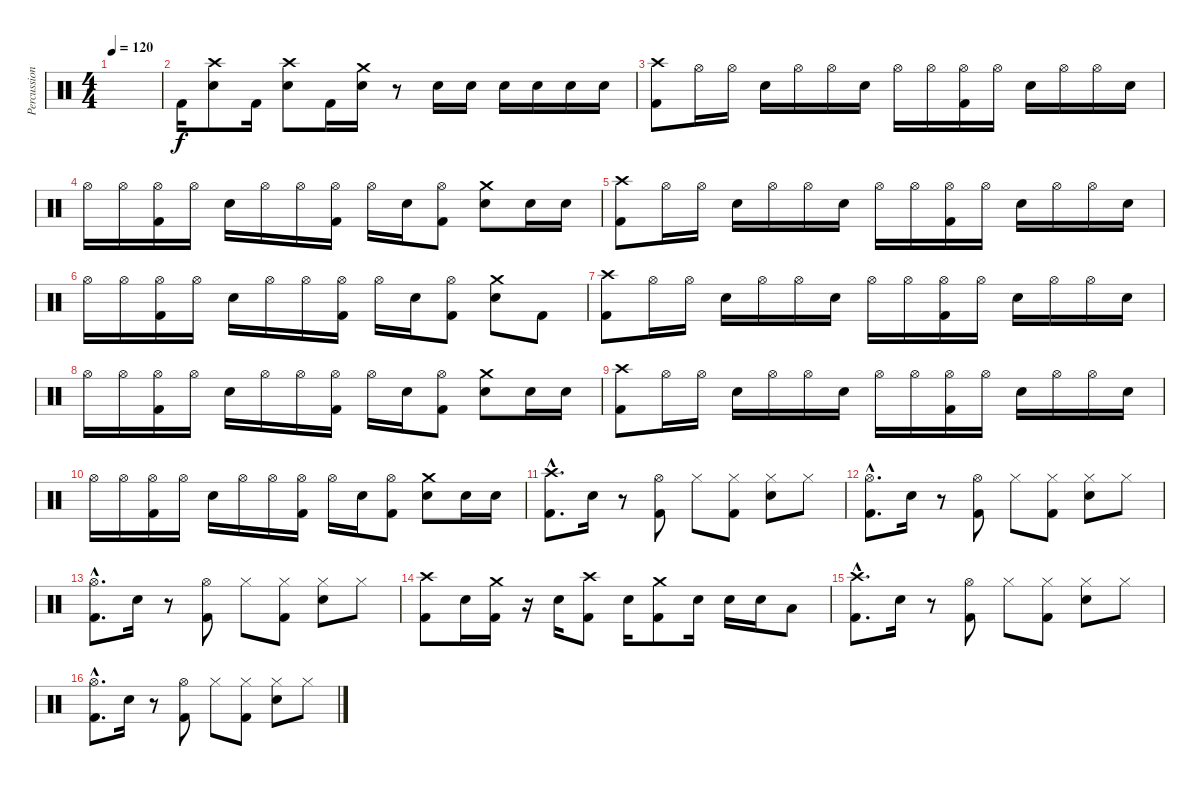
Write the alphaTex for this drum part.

\track ("Percussion" "Percussion") {instrument percussion}
\staff {score}
\articulation defaults
\ts (4 4)
\tempo 120
\clef neutral
\ks c
|
"Kick (hit) 2".16 ("Crash high (hit)" "Snare (hit) 2").8 "Kick (hit) 2".16 ("Crash high (hit)" "Snare (hit) 2").8 "Kick (hit) 2".16 ("Crash medium (hit)" "Snare (hit) 2").16 r.8 "Snare (hit) 2".16 "Snare (hit) 2".16 "Snare (hit) 2".16 "Snare (hit) 2".16 "Snare (hit) 2".16 "Snare (hit) 2".16 |
("Crash high (hit)" "Kick (hit) 2").8 "Hi-Hat (open)".16 "Hi-Hat (open)".16 "Snare (hit) 2".16 "Hi-Hat (open)".16 "Hi-Hat (open)".16 "Snare (hit) 2".16 "Hi-Hat (open)".16 "Hi-Hat (open)".16 ("Hi-Hat (open)" "Kick (hit) 2").16 "Hi-Hat (open)".16 "Snare (hit) 2".16 "Hi-Hat (open)".16 "Hi-Hat (open)".16 "Snare (hit) 2".16 |
"Hi-Hat (open)".16 "Hi-Hat (open)".16 ("Hi-Hat (open)" "Kick (hit) 2").16 "Hi-Hat (open)".16 "Snare (hit) 2".16 "Hi-Hat (open)".16 "Hi-Hat (open)".16 ("Hi-Hat (open)" "Kick (hit) 2").16 "Hi-Hat (open)".16 "Snare (hit) 2".16 ("Hi-Hat (open)" "Kick (hit) 2").8 ("Crash medium (hit)" "Snare (hit) 2").8 "Snare (hit) 2".16 "Snare (hit) 2".16 |
("Crash high (hit)" "Kick (hit) 2").8 "Hi-Hat (open)".16 "Hi-Hat (open)".16 "Snare (hit) 2".16 "Hi-Hat (open)".16 "Hi-Hat (open)".16 "Snare (hit) 2".16 "Hi-Hat (open)".16 "Hi-Hat (open)".16 ("Hi-Hat (open)" "Kick (hit) 2").16 "Hi-Hat (open)".16 "Snare (hit) 2".16 "Hi-Hat (open)".16 "Hi-Hat (open)".16 "Snare (hit) 2".16 |
"Hi-Hat (open)".16 "Hi-Hat (open)".16 ("Hi-Hat (open)" "Kick (hit) 2").16 "Hi-Hat (open)".16 "Snare (hit) 2".16 "Hi-Hat (open)".16 "Hi-Hat (open)".16 ("Hi-Hat (open)" "Kick (hit) 2").16 "Hi-Hat (open)".16 "Snare (hit) 2".16 ("Hi-Hat (open)" "Kick (hit) 2").8 ("Crash medium (hit)" "Snare (hit) 2").8 "Kick (hit) 2".8 |
("Crash high (hit)" "Kick (hit) 2").8 "Hi-Hat (open)".16 "Hi-Hat (open)".16 "Snare (hit) 2".16 "Hi-Hat (open)".16 "Hi-Hat (open)".16 "Snare (hit) 2".16 "Hi-Hat (open)".16 "Hi-Hat (open)".16 ("Hi-Hat (open)" "Kick (hit) 2").16 "Hi-Hat (open)".16 "Snare (hit) 2".16 "Hi-Hat (open)".16 "Hi-Hat (open)".16 "Snare (hit) 2".16 |
"Hi-Hat (open)".16 "Hi-Hat (open)".16 ("Hi-Hat (open)" "Kick (hit) 2").16 "Hi-Hat (open)".16 "Snare (hit) 2".16 "Hi-Hat (open)".16 "Hi-Hat (open)".16 ("Hi-Hat (open)" "Kick (hit) 2").16 "Hi-Hat (open)".16 "Snare (hit) 2".16 ("Hi-Hat (open)" "Kick (hit) 2").8 ("Crash medium (hit)" "Snare (hit) 2").8 "Snare (hit) 2".16 "Snare (hit) 2".16 |
("Crash high (hit)" "Kick (hit) 2").8 "Hi-Hat (open)".16 "Hi-Hat (open)".16 "Snare (hit) 2".16 "Hi-Hat (open)".16 "Hi-Hat (open)".16 "Snare (hit) 2".16 "Hi-Hat (open)".16 "Hi-Hat (open)".16 ("Hi-Hat (open)" "Kick (hit) 2").16 "Hi-Hat (open)".16 "Snare (hit) 2".16 "Hi-Hat (open)".16 "Hi-Hat (open)".16 "Snare (hit) 2".16 |
"Hi-Hat (open)".16 "Hi-Hat (open)".16 ("Hi-Hat (open)" "Kick (hit) 2").16 "Hi-Hat (open)".16 "Snare (hit) 2".16 "Hi-Hat (open)".16 "Hi-Hat (open)".16 ("Hi-Hat (open)" "Kick (hit) 2").16 "Hi-Hat (open)".16 "Snare (hit) 2".16 ("Hi-Hat (open)" "Kick (hit) 2").8 ("Crash medium (hit)" "Snare (hit) 2").8 "Snare (hit) 2".16 "Snare (hit) 2".16 |
("Crash high (hit)"{hac} "Kick (hit) 2"{hac}).8{d} "Snare (hit) 2".16 r.8 ("Hi-Hat (open)" "Kick (hit) 2").8 "Hi-Hat (closed)".8 ("Hi-Hat (closed)" "Kick (hit) 2").8 ("Hi-Hat (closed)" "Snare (hit) 2").8 "Hi-Hat (closed)".8 |
("Hi-Hat (open)"{hac} "Kick (hit) 2"{hac}).8{d} "Snare (hit) 2".16 r.8 ("Hi-Hat (open)" "Kick (hit) 2").8 "Hi-Hat (closed)".8 ("Hi-Hat (closed)" "Kick (hit) 2").8 ("Hi-Hat (closed)" "Snare (hit) 2").8 "Hi-Hat (closed)".8 |
("Hi-Hat (open)"{hac} "Kick (hit) 2"{hac}).8{d} "Snare (hit) 2".16 r.8 ("Hi-Hat (open)" "Kick (hit) 2").8 "Hi-Hat (closed)".8 ("Hi-Hat (closed)" "Kick (hit) 2").8 ("Hi-Hat (closed)" "Snare (hit) 2").8 "Hi-Hat (closed)".8 |
("Crash high (hit)" "Kick (hit) 2").8 "Snare (hit) 2".16 ("Crash medium (hit)" "Kick (hit) 2").16 r.16 "Snare (hit) 2".16 ("Crash high (hit)" "Kick (hit) 2").8 "Snare (hit) 2".16 ("Crash medium (hit)" "Kick (hit) 2").8 "Snare (hit) 2".16 "Snare (hit) 2".16 "Snare (hit) 2".16 "Low Tom (hit)".8 |
("Crash high (hit)"{hac} "Kick (hit) 2"{hac}).8{d} "Snare (hit) 2".16 r.8 ("Hi-Hat (open)" "Kick (hit) 2").8 "Hi-Hat (closed)".8 ("Hi-Hat (closed)" "Kick (hit) 2").8 ("Hi-Hat (closed)" "Snare (hit) 2").8 "Hi-Hat (closed)".8 |
("Hi-Hat (open)"{hac} "Kick (hit) 2"{hac}).8{d} "Snare (hit) 2".16 r.8 ("Hi-Hat (open)" "Kick (hit) 2").8 "Hi-Hat (closed)".8 ("Hi-Hat (closed)" "Kick (hit) 2").8 ("Hi-Hat (closed)" "Snare (hit) 2").8 "Hi-Hat (closed)".8
